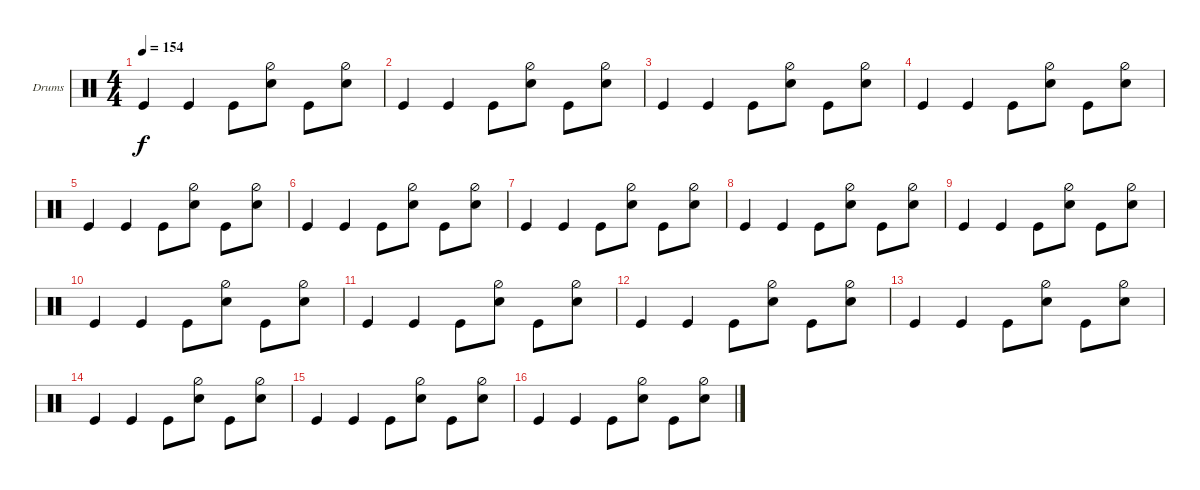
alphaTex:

\bracketExtendMode groupsimilarinstruments
\firstSystemTrackNameOrientation horizontal
\otherSystemsTrackNameOrientation horizontal
\track ("Drums" "Drums") {instrument percussion}
\staff {score}
\articulation defaults
\ts (4 4)
\tempo 154
\clef neutral
\ks c "Kick (hit)".4{dy f} "Kick (hit)".4 "Kick (hit)".8
("Snare (hit) 2" "Hi-Hat (half)").8 "Kick (hit)".8 ("Snare (hit) 2" "Hi-Hat (half)").8 |
"Kick (hit)".4 "Kick (hit)".4 "Kick (hit)".8 ("Snare (hit) 2" "Hi-Hat (half)").8 "Kick (hit)".8 ("Snare (hit) 2" "Hi-Hat (half)").8 |
"Kick (hit)".4 "Kick (hit)".4 "Kick (hit)".8 ("Snare (hit) 2" "Hi-Hat (half)").8 "Kick (hit)".8 ("Snare (hit) 2" "Hi-Hat (half)").8 |
"Kick (hit)".4 "Kick (hit)".4 "Kick (hit)".8 ("Snare (hit) 2" "Hi-Hat (half)").8 "Kick (hit)".8 ("Snare (hit) 2" "Hi-Hat (half)").8 |
"Kick (hit)".4 "Kick (hit)".4 "Kick (hit)".8 ("Snare (hit) 2" "Hi-Hat (half)").8 "Kick (hit)".8 ("Snare (hit) 2" "Hi-Hat (half)").8 |
"Kick (hit)".4 "Kick (hit)".4 "Kick (hit)".8 ("Snare (hit) 2" "Hi-Hat (half)").8 "Kick (hit)".8 ("Snare (hit) 2" "Hi-Hat (half)").8 |
"Kick (hit)".4 "Kick (hit)".4 "Kick (hit)".8 ("Snare (hit) 2" "Hi-Hat (half)").8 "Kick (hit)".8 ("Snare (hit) 2" "Hi-Hat (half)").8 |
"Kick (hit)".4 "Kick (hit)".4 "Kick (hit)".8 ("Snare (hit) 2" "Hi-Hat (half)").8 "Kick (hit)".8 ("Snare (hit) 2" "Hi-Hat (half)").8 |
"Kick (hit)".4 "Kick (hit)".4 "Kick (hit)".8 ("Snare (hit) 2" "Hi-Hat (half)").8 "Kick (hit)".8 ("Snare (hit) 2" "Hi-Hat (half)").8 |
"Kick (hit)".4 "Kick (hit)".4 "Kick (hit)".8 ("Snare (hit) 2" "Hi-Hat (half)").8 "Kick (hit)".8 ("Snare (hit) 2" "Hi-Hat (half)").8 |
"Kick (hit)".4 "Kick (hit)".4 "Kick (hit)".8 ("Snare (hit) 2" "Hi-Hat (half)").8 "Kick (hit)".8 ("Snare (hit) 2" "Hi-Hat (half)").8 |
"Kick (hit)".4 "Kick (hit)".4 "Kick (hit)".8 ("Snare (hit) 2" "Hi-Hat (half)").8 "Kick (hit)".8 ("Snare (hit) 2" "Hi-Hat (half)").8 |
"Kick (hit)".4 "Kick (hit)".4 "Kick (hit)".8 ("Snare (hit) 2" "Hi-Hat (half)").8 "Kick (hit)".8 ("Snare (hit) 2" "Hi-Hat (half)").8 |
"Kick (hit)".4 "Kick (hit)".4 "Kick (hit)".8 ("Snare (hit) 2" "Hi-Hat (half)").8 "Kick (hit)".8 ("Snare (hit) 2" "Hi-Hat (half)").8 |
"Kick (hit)".4 "Kick (hit)".4 "Kick (hit)".8 ("Snare (hit) 2" "Hi-Hat (half)").8 "Kick (hit)".8 ("Snare (hit) 2" "Hi-Hat (half)").8 |
"Kick (hit)".4 "Kick (hit)".4 "Kick (hit)".8 ("Snare (hit) 2" "Hi-Hat (half)").8 "Kick (hit)".8 ("Snare (hit) 2" "Hi-Hat (half)").8
